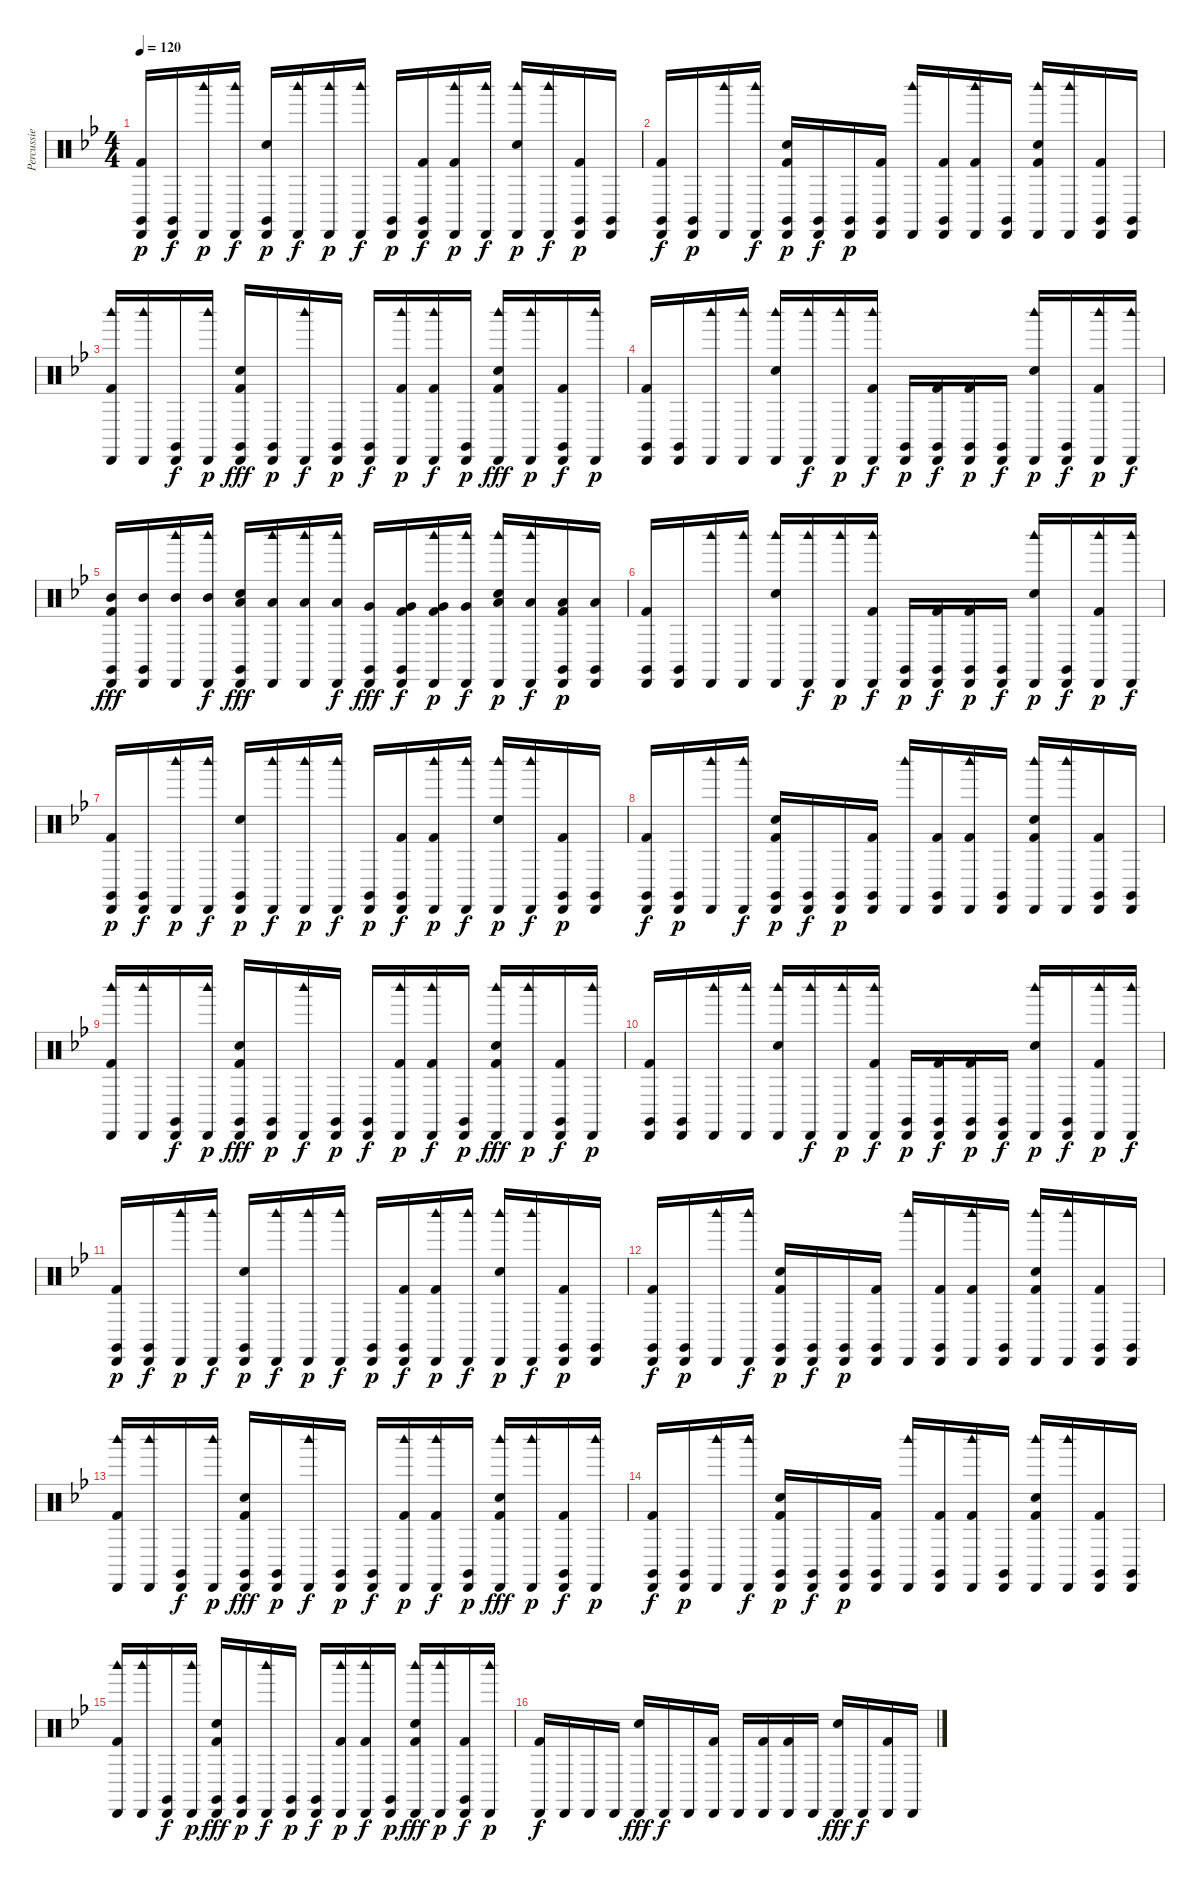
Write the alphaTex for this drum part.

\track ("Percussie" "Percussie") {instrument percussion}
\staff {score}
\articulation defaults
\ts (4 4)
\tempo 120
\clef neutral
\ks bb
("Cabasa (hit)" "Kick (hit) 2" "Claves (hit)").16{dy p} ("Cabasa (hit)" "Claves (hit)").16{dy f} ("Cabasa (hit)" "Woodblock high (hit)").16{dy p} ("Cabasa (hit)" "Woodblock high (hit)").16{dy f} ("Cabasa (hit)" "Snare (hit) 2" "Claves (hit)").16{dy p} ("Cabasa (hit)" "Woodblock high (hit)").16{dy f} ("Cabasa (hit)" "Woodblock high (hit)").16{dy p} ("Cabasa (hit)" "Woodblock high (hit)").16{dy f} ("Cabasa (hit)" "Claves (hit)").16{dy p} ("Cabasa (hit)" "Kick (hit) 2" "Claves (hit)").16{dy f} ("Cabasa (hit)" "Kick (hit) 2" "Woodblock high (hit)").16{dy p} ("Cabasa (hit)" "Woodblock high (hit)").16{dy f} ("Cabasa (hit)" "Snare (hit) 2" "Woodblock high (hit)").16{dy p} ("Cabasa (hit)" "Woodblock high (hit)").16{dy f} ("Cabasa (hit)" "Kick (hit) 2" "Claves (hit)").16{dy p} ("Cabasa (hit)" "Claves (hit)").16 |
("Cabasa (hit)" "Kick (hit) 2" "Claves (hit)").16{dy f} ("Cabasa (hit)" "Claves (hit)").16{dy p} ("Cabasa (hit)" "Woodblock high (hit)").16 ("Cabasa (hit)" "Woodblock high (hit)").16{dy f} ("Cabasa (hit)" "Kick (hit) 2" "Snare (hit) 2" "Claves (hit)").16{dy p} ("Cabasa (hit)" "Claves (hit)").16{dy f} ("Cabasa (hit)" "Claves (hit)").16{dy p} ("Cabasa (hit)" "Kick (hit) 2" "Claves (hit)").16 ("Cabasa (hit)" "Woodblock high (hit)").16 ("Cabasa (hit)" "Kick (hit) 2" "Claves (hit)").16 ("Cabasa (hit)" "Kick (hit) 2" "Woodblock high (hit)").16 ("Cabasa (hit)" "Claves (hit)").16 ("Cabasa (hit)" "Kick (hit) 2" "Snare (hit) 2" "Woodblock high (hit)").16 ("Cabasa (hit)" "Woodblock high (hit)").16 ("Cabasa (hit)" "Kick (hit) 2" "Claves (hit)").16 ("Cabasa (hit)" "Claves (hit)").16 |
("Cabasa (hit)" "Kick (hit) 2" "Woodblock high (hit)").16 ("Cabasa (hit)" "Woodblock high (hit)").16 ("Cabasa (hit)" "Claves (hit)").16{dy f} ("Cabasa (hit)" "Woodblock high (hit)").16{dy p} ("Cabasa (hit)" "Kick (hit) 2" "Snare (hit) 2" "Claves (hit)").16{dy fff} ("Cabasa (hit)" "Claves (hit)").16{dy p} ("Cabasa (hit)" "Woodblock high (hit)").16{dy f} ("Cabasa (hit)" "Claves (hit)").16{dy p} ("Cabasa (hit)" "Claves (hit)").16{dy f} ("Cabasa (hit)" "Kick (hit) 2" "Woodblock high (hit)").16{dy p} ("Cabasa (hit)" "Kick (hit) 2" "Woodblock high (hit)").16{dy f} ("Cabasa (hit)" "Claves (hit)").16{dy p} ("Cabasa (hit)" "Kick (hit) 2" "Snare (hit) 2" "Woodblock high (hit)").16{dy fff} ("Cabasa (hit)" "Woodblock high (hit)").16{dy p} ("Cabasa (hit)" "Kick (hit) 2" "Claves (hit)").16{dy f} ("Cabasa (hit)" "Woodblock high (hit)").16{dy p} |
("Cabasa (hit)" "Kick (hit) 2" "Claves (hit)").16 ("Cabasa (hit)" "Claves (hit)").16 ("Cabasa (hit)" "Woodblock high (hit)").16 ("Cabasa (hit)" "Woodblock high (hit)").16 ("Cabasa (hit)" "Snare (hit) 2" "Woodblock high (hit)").16 ("Cabasa (hit)" "Woodblock high (hit)").16{dy f} ("Cabasa (hit)" "Woodblock high (hit)").16{dy p} ("Cabasa (hit)" "Kick (hit) 2" "Woodblock high (hit)").16{dy f} ("Cabasa (hit)" "Claves (hit)").16{dy p} ("Cabasa (hit)" "Kick (hit) 2" "Claves (hit)").16{dy f} ("Cabasa (hit)" "Kick (hit) 2" "Claves (hit)").16{dy p} ("Cabasa (hit)" "Claves (hit)").16{dy f} ("Cabasa (hit)" "Snare (hit) 2" "Woodblock high (hit)").16{dy p} ("Cabasa (hit)" "Claves (hit)").16{dy f} ("Cabasa (hit)" "Kick (hit) 2" "Woodblock high (hit)").16{dy p} ("Cabasa (hit)" "Woodblock high (hit)").16{dy f} |
("Cabasa (hit)" "Kick (hit) 2" "Claves (hit)" "Mid Tom (hit)").16{dy fff} ("Cabasa (hit)" "Claves (hit)" "Mid Tom (hit)").16 ("Cabasa (hit)" "Woodblock high (hit)" "Mid Tom (hit)").16 ("Cabasa (hit)" "Woodblock high (hit)" "Mid Tom (hit)").16{dy f} ("Cabasa (hit)" "Snare (hit) 2" "Claves (hit)" "Low Tom (hit)").16{dy fff} ("Cabasa (hit)" "Woodblock high (hit)" "Low Tom (hit)").16 ("Cabasa (hit)" "Woodblock high (hit)" "Low Tom (hit)").16 ("Cabasa (hit)" "Woodblock high (hit)" "Low Tom (hit)").16{dy f} ("Cabasa (hit)" "Claves (hit)" "Very Low Tom (hit)").16{dy fff} ("Cabasa (hit)" "Kick (hit) 2" "Claves (hit)" "Very Low Tom (hit)").16{dy f} ("Cabasa (hit)" "Kick (hit) 2" "Woodblock high (hit)" "Very Low Tom (hit)").16{dy p} ("Cabasa (hit)" "Woodblock high (hit)" "Very Low Tom (hit)").16{dy f} ("Cabasa (hit)" "Snare (hit) 2" "Woodblock high (hit)" "Low Floor Tom (hit)").16{dy p} ("Cabasa (hit)" "Woodblock high (hit)" "Low Floor Tom (hit)").16{dy f} ("Cabasa (hit)" "Kick (hit) 2" "Claves (hit)" "Low Floor Tom (hit)").16{dy p} ("Cabasa (hit)" "Claves (hit)" "Low Floor Tom (hit)").16 |
("Cabasa (hit)" "Kick (hit) 2" "Claves (hit)").16 ("Cabasa (hit)" "Claves (hit)").16 ("Cabasa (hit)" "Woodblock high (hit)").16 ("Cabasa (hit)" "Woodblock high (hit)").16 ("Cabasa (hit)" "Snare (hit) 2" "Woodblock high (hit)").16 ("Cabasa (hit)" "Woodblock high (hit)").16{dy f} ("Cabasa (hit)" "Woodblock high (hit)").16{dy p} ("Cabasa (hit)" "Kick (hit) 2" "Woodblock high (hit)").16{dy f} ("Cabasa (hit)" "Claves (hit)").16{dy p} ("Cabasa (hit)" "Kick (hit) 2" "Claves (hit)").16{dy f} ("Cabasa (hit)" "Kick (hit) 2" "Claves (hit)").16{dy p} ("Cabasa (hit)" "Claves (hit)").16{dy f} ("Cabasa (hit)" "Snare (hit) 2" "Woodblock high (hit)").16{dy p} ("Cabasa (hit)" "Claves (hit)").16{dy f} ("Cabasa (hit)" "Kick (hit) 2" "Woodblock high (hit)").16{dy p} ("Cabasa (hit)" "Woodblock high (hit)").16{dy f} |
("Cabasa (hit)" "Kick (hit) 2" "Claves (hit)").16{dy p} ("Cabasa (hit)" "Claves (hit)").16{dy f} ("Cabasa (hit)" "Woodblock high (hit)").16{dy p} ("Cabasa (hit)" "Woodblock high (hit)").16{dy f} ("Cabasa (hit)" "Snare (hit) 2" "Claves (hit)").16{dy p} ("Cabasa (hit)" "Woodblock high (hit)").16{dy f} ("Cabasa (hit)" "Woodblock high (hit)").16{dy p} ("Cabasa (hit)" "Woodblock high (hit)").16{dy f} ("Cabasa (hit)" "Claves (hit)").16{dy p} ("Cabasa (hit)" "Kick (hit) 2" "Claves (hit)").16{dy f} ("Cabasa (hit)" "Kick (hit) 2" "Woodblock high (hit)").16{dy p} ("Cabasa (hit)" "Woodblock high (hit)").16{dy f} ("Cabasa (hit)" "Snare (hit) 2" "Woodblock high (hit)").16{dy p} ("Cabasa (hit)" "Woodblock high (hit)").16{dy f} ("Cabasa (hit)" "Kick (hit) 2" "Claves (hit)").16{dy p} ("Cabasa (hit)" "Claves (hit)").16 |
("Cabasa (hit)" "Kick (hit) 2" "Claves (hit)").16{dy f} ("Cabasa (hit)" "Claves (hit)").16{dy p} ("Cabasa (hit)" "Woodblock high (hit)").16 ("Cabasa (hit)" "Woodblock high (hit)").16{dy f} ("Cabasa (hit)" "Kick (hit) 2" "Snare (hit) 2" "Claves (hit)").16{dy p} ("Cabasa (hit)" "Claves (hit)").16{dy f} ("Cabasa (hit)" "Claves (hit)").16{dy p} ("Cabasa (hit)" "Kick (hit) 2" "Claves (hit)").16 ("Cabasa (hit)" "Woodblock high (hit)").16 ("Cabasa (hit)" "Kick (hit) 2" "Claves (hit)").16 ("Cabasa (hit)" "Kick (hit) 2" "Woodblock high (hit)").16 ("Cabasa (hit)" "Claves (hit)").16 ("Cabasa (hit)" "Kick (hit) 2" "Snare (hit) 2" "Woodblock high (hit)").16 ("Cabasa (hit)" "Woodblock high (hit)").16 ("Cabasa (hit)" "Kick (hit) 2" "Claves (hit)").16 ("Cabasa (hit)" "Claves (hit)").16 |
("Cabasa (hit)" "Kick (hit) 2" "Woodblock high (hit)").16 ("Cabasa (hit)" "Woodblock high (hit)").16 ("Cabasa (hit)" "Claves (hit)").16{dy f} ("Cabasa (hit)" "Woodblock high (hit)").16{dy p} ("Cabasa (hit)" "Kick (hit) 2" "Snare (hit) 2" "Claves (hit)").16{dy fff} ("Cabasa (hit)" "Claves (hit)").16{dy p} ("Cabasa (hit)" "Woodblock high (hit)").16{dy f} ("Cabasa (hit)" "Claves (hit)").16{dy p} ("Cabasa (hit)" "Claves (hit)").16{dy f} ("Cabasa (hit)" "Kick (hit) 2" "Woodblock high (hit)").16{dy p} ("Cabasa (hit)" "Kick (hit) 2" "Woodblock high (hit)").16{dy f} ("Cabasa (hit)" "Claves (hit)").16{dy p} ("Cabasa (hit)" "Kick (hit) 2" "Snare (hit) 2" "Woodblock high (hit)").16{dy fff} ("Cabasa (hit)" "Woodblock high (hit)").16{dy p} ("Cabasa (hit)" "Kick (hit) 2" "Claves (hit)").16{dy f} ("Cabasa (hit)" "Woodblock high (hit)").16{dy p} |
("Cabasa (hit)" "Kick (hit) 2" "Claves (hit)").16 ("Cabasa (hit)" "Claves (hit)").16 ("Cabasa (hit)" "Woodblock high (hit)").16 ("Cabasa (hit)" "Woodblock high (hit)").16 ("Cabasa (hit)" "Snare (hit) 2" "Woodblock high (hit)").16 ("Cabasa (hit)" "Woodblock high (hit)").16{dy f} ("Cabasa (hit)" "Woodblock high (hit)").16{dy p} ("Cabasa (hit)" "Kick (hit) 2" "Woodblock high (hit)").16{dy f} ("Cabasa (hit)" "Claves (hit)").16{dy p} ("Cabasa (hit)" "Kick (hit) 2" "Claves (hit)").16{dy f} ("Cabasa (hit)" "Kick (hit) 2" "Claves (hit)").16{dy p} ("Cabasa (hit)" "Claves (hit)").16{dy f} ("Cabasa (hit)" "Snare (hit) 2" "Woodblock high (hit)").16{dy p} ("Cabasa (hit)" "Claves (hit)").16{dy f} ("Cabasa (hit)" "Kick (hit) 2" "Woodblock high (hit)").16{dy p} ("Cabasa (hit)" "Woodblock high (hit)").16{dy f} |
("Cabasa (hit)" "Kick (hit) 2" "Claves (hit)").16{dy p} ("Cabasa (hit)" "Claves (hit)").16{dy f} ("Cabasa (hit)" "Woodblock high (hit)").16{dy p} ("Cabasa (hit)" "Woodblock high (hit)").16{dy f} ("Cabasa (hit)" "Snare (hit) 2" "Claves (hit)").16{dy p} ("Cabasa (hit)" "Woodblock high (hit)").16{dy f} ("Cabasa (hit)" "Woodblock high (hit)").16{dy p} ("Cabasa (hit)" "Woodblock high (hit)").16{dy f} ("Cabasa (hit)" "Claves (hit)").16{dy p} ("Cabasa (hit)" "Kick (hit) 2" "Claves (hit)").16{dy f} ("Cabasa (hit)" "Kick (hit) 2" "Woodblock high (hit)").16{dy p} ("Cabasa (hit)" "Woodblock high (hit)").16{dy f} ("Cabasa (hit)" "Snare (hit) 2" "Woodblock high (hit)").16{dy p} ("Cabasa (hit)" "Woodblock high (hit)").16{dy f} ("Cabasa (hit)" "Kick (hit) 2" "Claves (hit)").16{dy p} ("Cabasa (hit)" "Claves (hit)").16 |
("Cabasa (hit)" "Kick (hit) 2" "Claves (hit)").16{dy f} ("Cabasa (hit)" "Claves (hit)").16{dy p} ("Cabasa (hit)" "Woodblock high (hit)").16 ("Cabasa (hit)" "Woodblock high (hit)").16{dy f} ("Cabasa (hit)" "Kick (hit) 2" "Snare (hit) 2" "Claves (hit)").16{dy p} ("Cabasa (hit)" "Claves (hit)").16{dy f} ("Cabasa (hit)" "Claves (hit)").16{dy p} ("Cabasa (hit)" "Kick (hit) 2" "Claves (hit)").16 ("Cabasa (hit)" "Woodblock high (hit)").16 ("Cabasa (hit)" "Kick (hit) 2" "Claves (hit)").16 ("Cabasa (hit)" "Kick (hit) 2" "Woodblock high (hit)").16 ("Cabasa (hit)" "Claves (hit)").16 ("Cabasa (hit)" "Kick (hit) 2" "Snare (hit) 2" "Woodblock high (hit)").16 ("Cabasa (hit)" "Woodblock high (hit)").16 ("Cabasa (hit)" "Kick (hit) 2" "Claves (hit)").16 ("Cabasa (hit)" "Claves (hit)").16 |
("Cabasa (hit)" "Kick (hit) 2" "Woodblock high (hit)").16 ("Cabasa (hit)" "Woodblock high (hit)").16 ("Cabasa (hit)" "Claves (hit)").16{dy f} ("Cabasa (hit)" "Woodblock high (hit)").16{dy p} ("Cabasa (hit)" "Kick (hit) 2" "Snare (hit) 2" "Claves (hit)").16{dy fff} ("Cabasa (hit)" "Claves (hit)").16{dy p} ("Cabasa (hit)" "Woodblock high (hit)").16{dy f} ("Cabasa (hit)" "Claves (hit)").16{dy p} ("Cabasa (hit)" "Claves (hit)").16{dy f} ("Cabasa (hit)" "Kick (hit) 2" "Woodblock high (hit)").16{dy p} ("Cabasa (hit)" "Kick (hit) 2" "Woodblock high (hit)").16{dy f} ("Cabasa (hit)" "Claves (hit)").16{dy p} ("Cabasa (hit)" "Kick (hit) 2" "Snare (hit) 2" "Woodblock high (hit)").16{dy fff} ("Cabasa (hit)" "Woodblock high (hit)").16{dy p} ("Cabasa (hit)" "Kick (hit) 2" "Claves (hit)").16{dy f} ("Cabasa (hit)" "Woodblock high (hit)").16{dy p} |
("Cabasa (hit)" "Kick (hit) 2" "Claves (hit)").16{dy f} ("Cabasa (hit)" "Claves (hit)").16{dy p} ("Cabasa (hit)" "Woodblock high (hit)").16 ("Cabasa (hit)" "Woodblock high (hit)").16{dy f} ("Cabasa (hit)" "Kick (hit) 2" "Snare (hit) 2" "Claves (hit)").16{dy p} ("Cabasa (hit)" "Claves (hit)").16{dy f} ("Cabasa (hit)" "Claves (hit)").16{dy p} ("Cabasa (hit)" "Kick (hit) 2" "Claves (hit)").16 ("Cabasa (hit)" "Woodblock high (hit)").16 ("Cabasa (hit)" "Kick (hit) 2" "Claves (hit)").16 ("Cabasa (hit)" "Kick (hit) 2" "Woodblock high (hit)").16 ("Cabasa (hit)" "Claves (hit)").16 ("Cabasa (hit)" "Kick (hit) 2" "Snare (hit) 2" "Woodblock high (hit)").16 ("Cabasa (hit)" "Woodblock high (hit)").16 ("Cabasa (hit)" "Kick (hit) 2" "Claves (hit)").16 ("Cabasa (hit)" "Claves (hit)").16 |
("Cabasa (hit)" "Kick (hit) 2" "Woodblock high (hit)").16 ("Cabasa (hit)" "Woodblock high (hit)").16 ("Cabasa (hit)" "Claves (hit)").16{dy f} ("Cabasa (hit)" "Woodblock high (hit)").16{dy p} ("Cabasa (hit)" "Kick (hit) 2" "Snare (hit) 2" "Claves (hit)").16{dy fff} ("Cabasa (hit)" "Claves (hit)").16{dy p} ("Cabasa (hit)" "Woodblock high (hit)").16{dy f} ("Cabasa (hit)" "Claves (hit)").16{dy p} ("Cabasa (hit)" "Claves (hit)").16{dy f} ("Cabasa (hit)" "Kick (hit) 2" "Woodblock high (hit)").16{dy p} ("Cabasa (hit)" "Kick (hit) 2" "Woodblock high (hit)").16{dy f} ("Cabasa (hit)" "Claves (hit)").16{dy p} ("Cabasa (hit)" "Kick (hit) 2" "Snare (hit) 2" "Woodblock high (hit)").16{dy fff} ("Cabasa (hit)" "Woodblock high (hit)").16{dy p} ("Cabasa (hit)" "Kick (hit) 2" "Claves (hit)").16{dy f} ("Cabasa (hit)" "Woodblock high (hit)").16{dy p} |
("Cabasa (hit)" "Kick (hit) 2").16{dy f} "Cabasa (hit)".16 "Cabasa (hit)".16 "Cabasa (hit)".16 ("Cabasa (hit)" "Snare (hit) 2").16{dy fff} "Cabasa (hit)".16{dy f} "Cabasa (hit)".16 ("Cabasa (hit)" "Kick (hit) 2").16 "Cabasa (hit)".16 ("Cabasa (hit)" "Kick (hit) 2").16 ("Cabasa (hit)" "Kick (hit) 2").16 "Cabasa (hit)".16 ("Cabasa (hit)" "Snare (hit) 2").16{dy fff} "Cabasa (hit)".16{dy f} ("Cabasa (hit)" "Kick (hit) 2").16 "Cabasa (hit)".16
